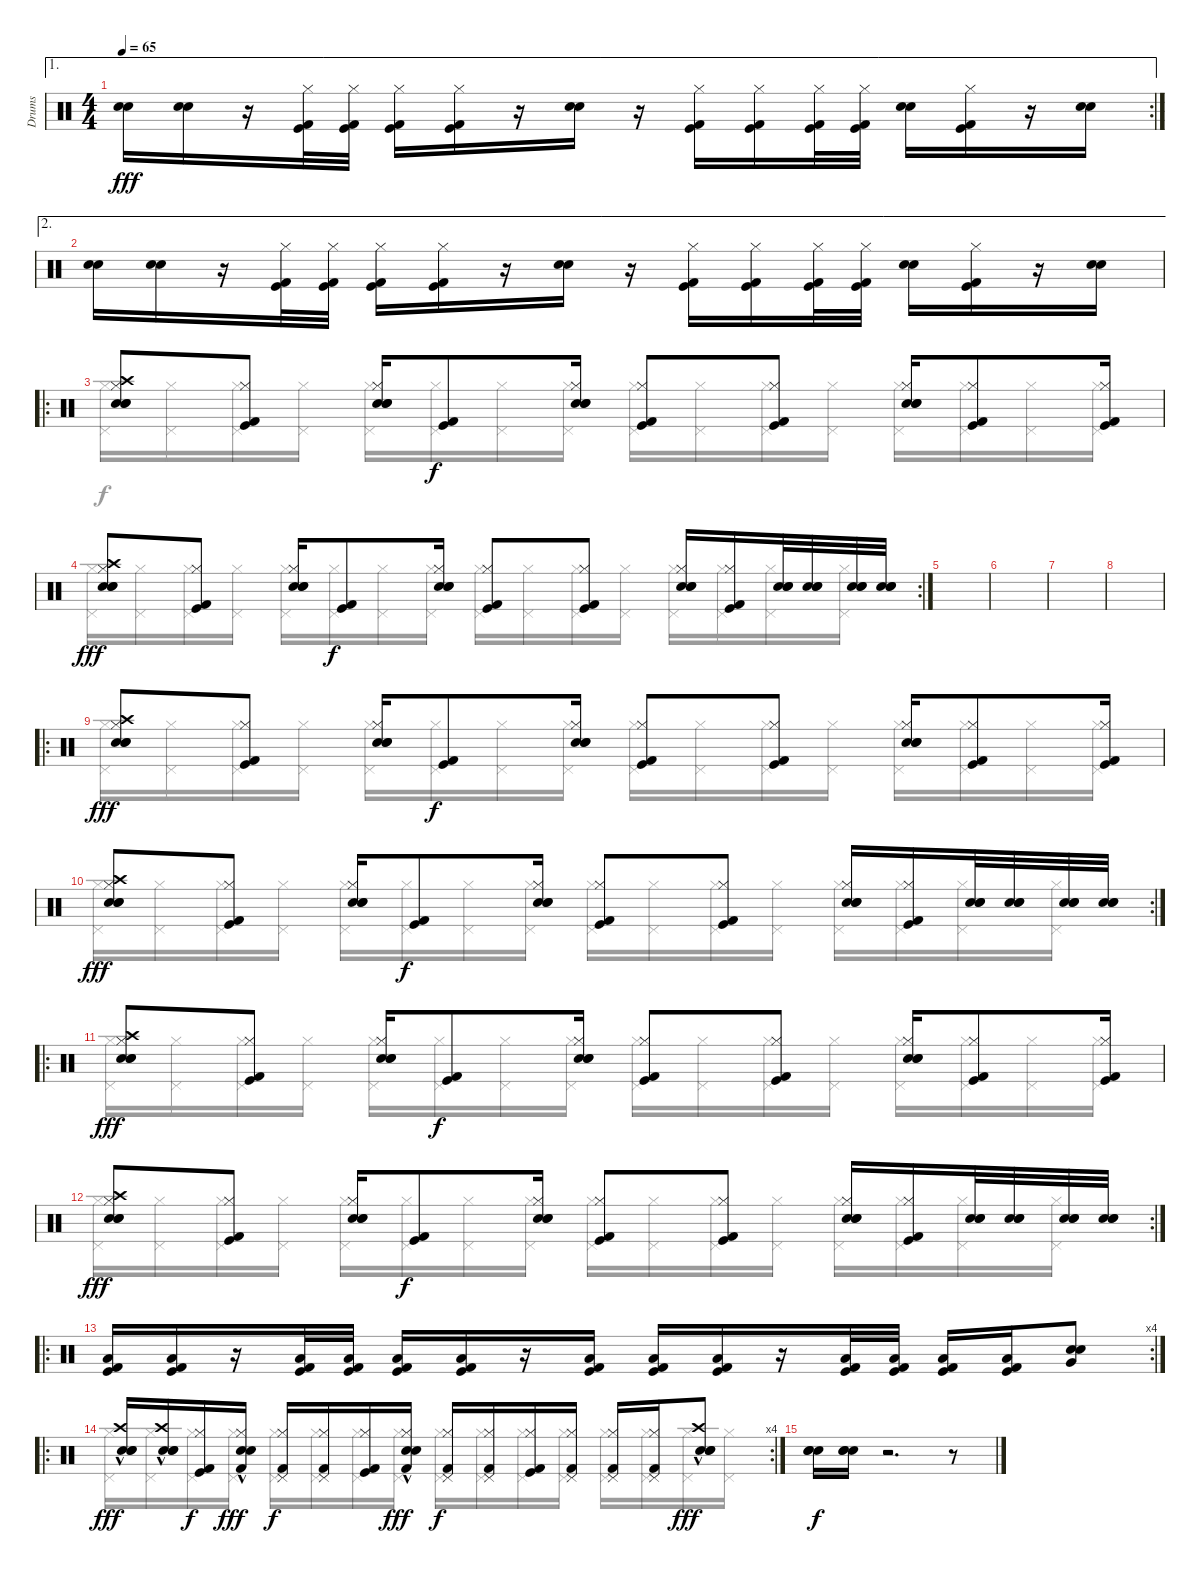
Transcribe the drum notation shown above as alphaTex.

\track ("Drums" "Drums") {instrument percussion}
\staff {score}
\articulation defaults
\voice
\ae 1
\rc 2
\ts (4 4)
\tempo 65
\clef neutral
\ks c
("Snare (hit) 2" "Electric Snare (hit)").16{dy fff} ("Snare (hit) 2" "Electric Snare (hit)").16 r.16 ("Hi-Hat (closed)" "Kick (hit)" "Kick (hit) 2").32 ("Hi-Hat (closed)" "Kick (hit)" "Kick (hit) 2").32 ("Hi-Hat (closed)" "Kick (hit)" "Kick (hit) 2").16 ("Hi-Hat (closed)" "Kick (hit)" "Kick (hit) 2").16 r.16 ("Snare (hit) 2" "Electric Snare (hit)").16 r.16 ("Hi-Hat (closed)" "Kick (hit)" "Kick (hit) 2").16 ("Hi-Hat (closed)" "Kick (hit)" "Kick (hit) 2").16 ("Hi-Hat (closed)" "Kick (hit)" "Kick (hit) 2").32 ("Hi-Hat (closed)" "Kick (hit)" "Kick (hit) 2").32 ("Snare (hit) 2" "Electric Snare (hit)").16 ("Hi-Hat (closed)" "Kick (hit)" "Kick (hit) 2").16 r.16 ("Snare (hit) 2" "Electric Snare (hit)").16 |
\ae 2
("Snare (hit) 2" "Electric Snare (hit)").16 ("Snare (hit) 2" "Electric Snare (hit)").16 r.16 ("Hi-Hat (closed)" "Kick (hit)" "Kick (hit) 2").32 ("Hi-Hat (closed)" "Kick (hit)" "Kick (hit) 2").32 ("Hi-Hat (closed)" "Kick (hit)" "Kick (hit) 2").16 ("Hi-Hat (closed)" "Kick (hit)" "Kick (hit) 2").16 r.16 ("Snare (hit) 2" "Electric Snare (hit)").16 r.16 ("Hi-Hat (closed)" "Kick (hit)" "Kick (hit) 2").16 ("Hi-Hat (closed)" "Kick (hit)" "Kick (hit) 2").16 ("Hi-Hat (closed)" "Kick (hit)" "Kick (hit) 2").32 ("Hi-Hat (closed)" "Kick (hit)" "Kick (hit) 2").32 ("Snare (hit) 2" "Electric Snare (hit)").16 ("Hi-Hat (closed)" "Kick (hit)" "Kick (hit) 2").16 r.16 ("Snare (hit) 2" "Electric Snare (hit)").16 |
\ro
("Hi-Hat (closed)" "Crash high (hit)" "Hand Clap (hit)" "Electric Snare (hit)" "Snare (hit) 2").8 ("Hi-Hat (closed)" "Kick (hit)" "Kick (hit) 2").8 ("Hi-Hat (closed)" "Hand Clap (hit)" "Electric Snare (hit)" "Snare (hit) 2").16 ("Kick (hit)" "Kick (hit) 2").8{dy f} ("Hi-Hat (closed)" "Hand Clap (hit)" "Electric Snare (hit)" "Snare (hit) 2").16 ("Hi-Hat (closed)" "Kick (hit)" "Kick (hit) 2").8 ("Hi-Hat (closed)" "Kick (hit)" "Kick (hit) 2").8 ("Hi-Hat (closed)" "Hand Clap (hit)" "Electric Snare (hit)" "Snare (hit) 2").16 ("Hi-Hat (closed)" "Kick (hit) 2" "Kick (hit)").8 ("Hi-Hat (closed)" "Kick (hit) 2" "Kick (hit)").16 |
\rc 2
("Hi-Hat (closed)" "Crash high (hit)" "Hand Clap (hit)" "Electric Snare (hit)" "Snare (hit) 2").8{dy fff} ("Hi-Hat (closed)" "Kick (hit)" "Kick (hit) 2").8 ("Hi-Hat (closed)" "Hand Clap (hit)" "Electric Snare (hit)" "Snare (hit) 2").16 ("Kick (hit)" "Kick (hit) 2").8{dy f} ("Hi-Hat (closed)" "Hand Clap (hit)" "Electric Snare (hit)" "Snare (hit) 2").16 ("Hi-Hat (closed)" "Kick (hit)" "Kick (hit) 2").8 ("Hi-Hat (closed)" "Kick (hit)" "Kick (hit) 2").8 ("Hi-Hat (closed)" "Hand Clap (hit)" "Electric Snare (hit)" "Snare (hit) 2").16 ("Hi-Hat (closed)" "Kick (hit) 2" "Kick (hit)").16 ("Hand Clap (hit)" "Electric Snare (hit)" "Snare (hit) 2").32 ("Hand Clap (hit)" "Electric Snare (hit)" "Snare (hit) 2").32 ("Hand Clap (hit)" "Electric Snare (hit)" "Snare (hit) 2").32 ("Hand Clap (hit)" "Electric Snare (hit)" "Snare (hit) 2").32 |
|
|
|
|
\ro
("Hi-Hat (closed)" "Crash high (hit)" "Hand Clap (hit)" "Electric Snare (hit)" "Snare (hit) 2").8{dy fff} ("Hi-Hat (closed)" "Kick (hit)" "Kick (hit) 2").8 ("Hi-Hat (closed)" "Hand Clap (hit)" "Electric Snare (hit)" "Snare (hit) 2").16 ("Kick (hit)" "Kick (hit) 2").8{dy f} ("Hi-Hat (closed)" "Hand Clap (hit)" "Electric Snare (hit)" "Snare (hit) 2").16 ("Hi-Hat (closed)" "Kick (hit)" "Kick (hit) 2").8 ("Hi-Hat (closed)" "Kick (hit)" "Kick (hit) 2").8 ("Hi-Hat (closed)" "Hand Clap (hit)" "Electric Snare (hit)" "Snare (hit) 2").16 ("Hi-Hat (closed)" "Kick (hit) 2" "Kick (hit)").8 ("Hi-Hat (closed)" "Kick (hit) 2" "Kick (hit)").16 |
\rc 2
("Hi-Hat (closed)" "Crash high (hit)" "Hand Clap (hit)" "Electric Snare (hit)" "Snare (hit) 2").8{dy fff} ("Hi-Hat (closed)" "Kick (hit)" "Kick (hit) 2").8 ("Hi-Hat (closed)" "Hand Clap (hit)" "Electric Snare (hit)" "Snare (hit) 2").16 ("Kick (hit)" "Kick (hit) 2").8{dy f} ("Hi-Hat (closed)" "Hand Clap (hit)" "Electric Snare (hit)" "Snare (hit) 2").16 ("Hi-Hat (closed)" "Kick (hit)" "Kick (hit) 2").8 ("Hi-Hat (closed)" "Kick (hit)" "Kick (hit) 2").8 ("Hi-Hat (closed)" "Hand Clap (hit)" "Electric Snare (hit)" "Snare (hit) 2").16 ("Hi-Hat (closed)" "Kick (hit) 2" "Kick (hit)").16 ("Hand Clap (hit)" "Electric Snare (hit)" "Snare (hit) 2").32 ("Hand Clap (hit)" "Electric Snare (hit)" "Snare (hit) 2").32 ("Hand Clap (hit)" "Electric Snare (hit)" "Snare (hit) 2").32 ("Hand Clap (hit)" "Electric Snare (hit)" "Snare (hit) 2").32 |
\ro
("Hi-Hat (closed)" "Crash high (hit)" "Hand Clap (hit)" "Electric Snare (hit)" "Snare (hit) 2").8{dy fff} ("Hi-Hat (closed)" "Kick (hit)" "Kick (hit) 2").8 ("Hi-Hat (closed)" "Hand Clap (hit)" "Electric Snare (hit)" "Snare (hit) 2").16 ("Kick (hit)" "Kick (hit) 2").8{dy f} ("Hi-Hat (closed)" "Hand Clap (hit)" "Electric Snare (hit)" "Snare (hit) 2").16 ("Hi-Hat (closed)" "Kick (hit)" "Kick (hit) 2").8 ("Hi-Hat (closed)" "Kick (hit)" "Kick (hit) 2").8 ("Hi-Hat (closed)" "Hand Clap (hit)" "Electric Snare (hit)" "Snare (hit) 2").16 ("Hi-Hat (closed)" "Kick (hit) 2" "Kick (hit)").8 ("Hi-Hat (closed)" "Kick (hit) 2" "Kick (hit)").16 |
\rc 2
("Hi-Hat (closed)" "Crash high (hit)" "Hand Clap (hit)" "Electric Snare (hit)" "Snare (hit) 2").8{dy fff} ("Hi-Hat (closed)" "Kick (hit)" "Kick (hit) 2").8 ("Hi-Hat (closed)" "Hand Clap (hit)" "Electric Snare (hit)" "Snare (hit) 2").16 ("Kick (hit)" "Kick (hit) 2").8{dy f} ("Hi-Hat (closed)" "Hand Clap (hit)" "Electric Snare (hit)" "Snare (hit) 2").16 ("Hi-Hat (closed)" "Kick (hit)" "Kick (hit) 2").8 ("Hi-Hat (closed)" "Kick (hit)" "Kick (hit) 2").8 ("Hi-Hat (closed)" "Hand Clap (hit)" "Electric Snare (hit)" "Snare (hit) 2").16 ("Hi-Hat (closed)" "Kick (hit) 2" "Kick (hit)").16 ("Hand Clap (hit)" "Electric Snare (hit)" "Snare (hit) 2").32 ("Hand Clap (hit)" "Electric Snare (hit)" "Snare (hit) 2").32 ("Hand Clap (hit)" "Electric Snare (hit)" "Snare (hit) 2").32 ("Hand Clap (hit)" "Electric Snare (hit)" "Snare (hit) 2").32 |
\ro
\rc 4
("Kick (hit)" "Kick (hit) 2" "Low Floor Tom (hit)").16 ("Kick (hit)" "Kick (hit) 2" "Low Floor Tom (hit)").16 r.16 ("Kick (hit)" "Kick (hit) 2" "Low Floor Tom (hit)").32 ("Kick (hit)" "Kick (hit) 2" "Low Floor Tom (hit)").32 ("Kick (hit)" "Kick (hit) 2" "Low Floor Tom (hit)").16 ("Kick (hit)" "Kick (hit) 2" "Low Floor Tom (hit)").16 r.16 ("Kick (hit)" "Kick (hit) 2" "Low Floor Tom (hit)").16 ("Kick (hit)" "Kick (hit) 2" "Low Floor Tom (hit)").16 ("Kick (hit)" "Kick (hit) 2" "Low Floor Tom (hit)").16 r.16 ("Kick (hit)" "Kick (hit) 2" "Low Floor Tom (hit)").32 ("Kick (hit)" "Kick (hit) 2" "Low Floor Tom (hit)").32 ("Kick (hit)" "Kick (hit) 2" "Low Floor Tom (hit)").16 ("Kick (hit)" "Kick (hit) 2" "Low Floor Tom (hit)").16 ("Very Low Tom (hit)" "Electric Snare (hit)" "Snare (hit) 2").8 |
\ro
\rc 4
("Crash high (hit)"{hac} "Hand Clap (hit)"{hac} "Electric Snare (hit)"{hac} "Snare (hit) 2"{hac}).16{dy fff} ("Crash high (hit)"{hac} "Hand Clap (hit)"{hac} "Electric Snare (hit)"{hac} "Snare (hit) 2"{hac}).16 ("Hi-Hat (closed)" "Kick (hit)" "Kick (hit) 2").16{dy f} ("Kick (hit) 2"{hac} "Hand Clap (hit)"{hac} "Electric Snare (hit)"{hac} "Hi-Hat (closed)"{hac}).16{dy fff} ("Kick (hit) 2" "Pedal Hi-Hat (hit)" "Hi-Hat (closed)").16{dy f} ("Kick (hit) 2" "Pedal Hi-Hat (hit)" "Hi-Hat (closed)").16 ("Hi-Hat (closed)" "Kick (hit)" "Kick (hit) 2").16 ("Kick (hit) 2"{hac} "Hand Clap (hit)"{hac} "Electric Snare (hit)"{hac} "Hi-Hat (closed)"{hac}).16{dy fff} ("Kick (hit) 2" "Pedal Hi-Hat (hit)" "Hi-Hat (closed)").16{dy f} ("Kick (hit) 2" "Pedal Hi-Hat (hit)" "Hi-Hat (closed)").16 ("Hi-Hat (closed)" "Kick (hit)" "Kick (hit) 2").16 ("Kick (hit) 2" "Pedal Hi-Hat (hit)" "Hi-Hat (closed)").16 ("Kick (hit) 2" "Pedal Hi-Hat (hit)" "Hi-Hat (closed)").16 ("Kick (hit) 2" "Pedal Hi-Hat (hit)" "Hi-Hat (closed)").16 ("Crash high (hit)"{hac} "Hand Clap (hit)"{hac} "Electric Snare (hit)"{hac} "Snare (hit) 2"{hac}).8{dy fff} |
("Hand Clap (hit)" "Snare (hit) 2" "Electric Snare (hit)").16{dy f} ("Hand Clap (hit)" "Snare (hit) 2" "Electric Snare (hit)").16 r.2{d} r.8
\voice
\clef neutral
\ottava regular
\simile none
\ks c
|
|
("Hi-Hat (closed)" "Pedal Hi-Hat (hit)").16 ("Hi-Hat (closed)" "Pedal Hi-Hat (hit)").16 ("Hi-Hat (closed)" "Pedal Hi-Hat (hit)").16 ("Hi-Hat (closed)" "Pedal Hi-Hat (hit)").16 ("Hi-Hat (closed)" "Pedal Hi-Hat (hit)").16 ("Hi-Hat (closed)" "Pedal Hi-Hat (hit)").16 ("Hi-Hat (closed)" "Pedal Hi-Hat (hit)").16 ("Hi-Hat (closed)" "Pedal Hi-Hat (hit)").16 ("Hi-Hat (closed)" "Pedal Hi-Hat (hit)").16 ("Hi-Hat (closed)" "Pedal Hi-Hat (hit)").16 ("Hi-Hat (closed)" "Pedal Hi-Hat (hit)").16 ("Hi-Hat (closed)" "Pedal Hi-Hat (hit)").16 ("Hi-Hat (closed)" "Pedal Hi-Hat (hit)").16 ("Hi-Hat (closed)" "Pedal Hi-Hat (hit)").16 ("Hi-Hat (closed)" "Pedal Hi-Hat (hit)").16 ("Hi-Hat (closed)" "Pedal Hi-Hat (hit)").16 |
("Hi-Hat (closed)" "Pedal Hi-Hat (hit)").16 ("Hi-Hat (closed)" "Pedal Hi-Hat (hit)").16 ("Hi-Hat (closed)" "Pedal Hi-Hat (hit)").16 ("Hi-Hat (closed)" "Pedal Hi-Hat (hit)").16 ("Hi-Hat (closed)" "Pedal Hi-Hat (hit)").16 ("Hi-Hat (closed)" "Pedal Hi-Hat (hit)").16 ("Hi-Hat (closed)" "Pedal Hi-Hat (hit)").16 ("Hi-Hat (closed)" "Pedal Hi-Hat (hit)").16 ("Hi-Hat (closed)" "Pedal Hi-Hat (hit)").16 ("Hi-Hat (closed)" "Pedal Hi-Hat (hit)").16 ("Hi-Hat (closed)" "Pedal Hi-Hat (hit)").16 ("Hi-Hat (closed)" "Pedal Hi-Hat (hit)").16 ("Hi-Hat (closed)" "Pedal Hi-Hat (hit)").16 ("Hi-Hat (closed)" "Pedal Hi-Hat (hit)").16 ("Hi-Hat (closed)" "Pedal Hi-Hat (hit)").16 ("Hi-Hat (closed)" "Pedal Hi-Hat (hit)").16 |
|
|
|
|
("Hi-Hat (closed)" "Pedal Hi-Hat (hit)").16 ("Hi-Hat (closed)" "Pedal Hi-Hat (hit)").16 ("Hi-Hat (closed)" "Pedal Hi-Hat (hit)").16 ("Hi-Hat (closed)" "Pedal Hi-Hat (hit)").16 ("Hi-Hat (closed)" "Pedal Hi-Hat (hit)").16 ("Hi-Hat (closed)" "Pedal Hi-Hat (hit)").16 ("Hi-Hat (closed)" "Pedal Hi-Hat (hit)").16 ("Hi-Hat (closed)" "Pedal Hi-Hat (hit)").16 ("Hi-Hat (closed)" "Pedal Hi-Hat (hit)").16 ("Hi-Hat (closed)" "Pedal Hi-Hat (hit)").16 ("Hi-Hat (closed)" "Pedal Hi-Hat (hit)").16 ("Hi-Hat (closed)" "Pedal Hi-Hat (hit)").16 ("Hi-Hat (closed)" "Pedal Hi-Hat (hit)").16 ("Hi-Hat (closed)" "Pedal Hi-Hat (hit)").16 ("Hi-Hat (closed)" "Pedal Hi-Hat (hit)").16 ("Hi-Hat (closed)" "Pedal Hi-Hat (hit)").16 |
("Hi-Hat (closed)" "Pedal Hi-Hat (hit)").16 ("Hi-Hat (closed)" "Pedal Hi-Hat (hit)").16 ("Hi-Hat (closed)" "Pedal Hi-Hat (hit)").16 ("Hi-Hat (closed)" "Pedal Hi-Hat (hit)").16 ("Hi-Hat (closed)" "Pedal Hi-Hat (hit)").16 ("Hi-Hat (closed)" "Pedal Hi-Hat (hit)").16 ("Hi-Hat (closed)" "Pedal Hi-Hat (hit)").16 ("Hi-Hat (closed)" "Pedal Hi-Hat (hit)").16 ("Hi-Hat (closed)" "Pedal Hi-Hat (hit)").16 ("Hi-Hat (closed)" "Pedal Hi-Hat (hit)").16 ("Hi-Hat (closed)" "Pedal Hi-Hat (hit)").16 ("Hi-Hat (closed)" "Pedal Hi-Hat (hit)").16 ("Hi-Hat (closed)" "Pedal Hi-Hat (hit)").16 ("Hi-Hat (closed)" "Pedal Hi-Hat (hit)").16 ("Hi-Hat (closed)" "Pedal Hi-Hat (hit)").16 ("Hi-Hat (closed)" "Pedal Hi-Hat (hit)").16 |
("Hi-Hat (closed)" "Pedal Hi-Hat (hit)").16 ("Hi-Hat (closed)" "Pedal Hi-Hat (hit)").16 ("Hi-Hat (closed)" "Pedal Hi-Hat (hit)").16 ("Hi-Hat (closed)" "Pedal Hi-Hat (hit)").16 ("Hi-Hat (closed)" "Pedal Hi-Hat (hit)").16 ("Hi-Hat (closed)" "Pedal Hi-Hat (hit)").16 ("Hi-Hat (closed)" "Pedal Hi-Hat (hit)").16 ("Hi-Hat (closed)" "Pedal Hi-Hat (hit)").16 ("Hi-Hat (closed)" "Pedal Hi-Hat (hit)").16 ("Hi-Hat (closed)" "Pedal Hi-Hat (hit)").16 ("Hi-Hat (closed)" "Pedal Hi-Hat (hit)").16 ("Hi-Hat (closed)" "Pedal Hi-Hat (hit)").16 ("Hi-Hat (closed)" "Pedal Hi-Hat (hit)").16 ("Hi-Hat (closed)" "Pedal Hi-Hat (hit)").16 ("Hi-Hat (closed)" "Pedal Hi-Hat (hit)").16 ("Hi-Hat (closed)" "Pedal Hi-Hat (hit)").16 |
("Hi-Hat (closed)" "Pedal Hi-Hat (hit)").16 ("Hi-Hat (closed)" "Pedal Hi-Hat (hit)").16 ("Hi-Hat (closed)" "Pedal Hi-Hat (hit)").16 ("Hi-Hat (closed)" "Pedal Hi-Hat (hit)").16 ("Hi-Hat (closed)" "Pedal Hi-Hat (hit)").16 ("Hi-Hat (closed)" "Pedal Hi-Hat (hit)").16 ("Hi-Hat (closed)" "Pedal Hi-Hat (hit)").16 ("Hi-Hat (closed)" "Pedal Hi-Hat (hit)").16 ("Hi-Hat (closed)" "Pedal Hi-Hat (hit)").16 ("Hi-Hat (closed)" "Pedal Hi-Hat (hit)").16 ("Hi-Hat (closed)" "Pedal Hi-Hat (hit)").16 ("Hi-Hat (closed)" "Pedal Hi-Hat (hit)").16 ("Hi-Hat (closed)" "Pedal Hi-Hat (hit)").16 ("Hi-Hat (closed)" "Pedal Hi-Hat (hit)").16 ("Hi-Hat (closed)" "Pedal Hi-Hat (hit)").16 ("Hi-Hat (closed)" "Pedal Hi-Hat (hit)").16 |
|
("Hi-Hat (closed)" "Pedal Hi-Hat (hit)").16 ("Hi-Hat (closed)" "Pedal Hi-Hat (hit)").16 ("Hi-Hat (closed)" "Pedal Hi-Hat (hit)").16 ("Hi-Hat (closed)" "Pedal Hi-Hat (hit)").16 ("Hi-Hat (closed)" "Pedal Hi-Hat (hit)").16 ("Hi-Hat (closed)" "Pedal Hi-Hat (hit)").16 ("Hi-Hat (closed)" "Pedal Hi-Hat (hit)").16 ("Hi-Hat (closed)" "Pedal Hi-Hat (hit)").16 ("Hi-Hat (closed)" "Pedal Hi-Hat (hit)").16 ("Hi-Hat (closed)" "Pedal Hi-Hat (hit)").16 ("Hi-Hat (closed)" "Pedal Hi-Hat (hit)").16 ("Hi-Hat (closed)" "Pedal Hi-Hat (hit)").16 ("Hi-Hat (closed)" "Pedal Hi-Hat (hit)").16 ("Hi-Hat (closed)" "Pedal Hi-Hat (hit)").16 ("Hi-Hat (closed)" "Pedal Hi-Hat (hit)").16 ("Hi-Hat (closed)" "Pedal Hi-Hat (hit)").16 |
